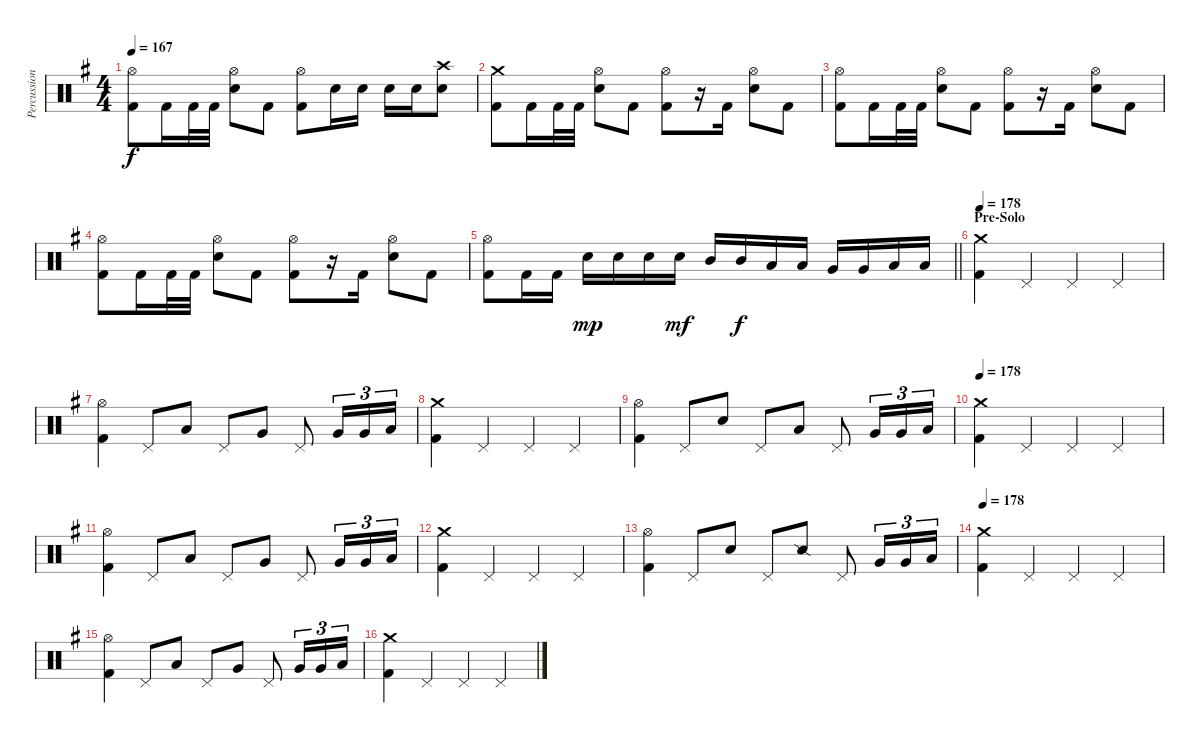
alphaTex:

\track ("Percussion" "Percussion") {instrument percussion}
\staff {score}
\articulation defaults
\ts (4 4)
\tempo 167
\clef neutral
\ks g
("Hi-Hat (open)" "Kick (hit) 2").8{dy f} "Kick (hit) 2".16 "Kick (hit) 2".32 "Kick (hit) 2".32 ("Hi-Hat (open)" "Snare (hit) 2").8 "Kick (hit) 2".8 ("Hi-Hat (open)" "Kick (hit) 2").8 "Snare (hit) 2".16 "Snare (hit) 2".16 "Snare (hit) 2".16 "Snare (hit) 2".16 ("Crash high (hit)" "Snare (hit) 2").8 |
("Crash medium (hit)" "Kick (hit) 2").8 "Kick (hit) 2".16 "Kick (hit) 2".32 "Kick (hit) 2".32 ("Hi-Hat (open)" "Snare (hit) 2").8 "Kick (hit) 2".8 ("Hi-Hat (open)" "Kick (hit) 2").8 r.16 "Kick (hit) 2".16 ("Hi-Hat (open)" "Snare (hit) 2").8 "Kick (hit) 2".8 |
("Hi-Hat (open)" "Kick (hit) 2").8 "Kick (hit) 2".16 "Kick (hit) 2".32 "Kick (hit) 2".32 ("Hi-Hat (open)" "Snare (hit) 2").8 "Kick (hit) 2".8 ("Hi-Hat (open)" "Kick (hit) 2").8 r.16 "Kick (hit) 2".16 ("Hi-Hat (open)" "Snare (hit) 2").8 "Kick (hit) 2".8 |
("Hi-Hat (open)" "Kick (hit) 2").8 "Kick (hit) 2".16 "Kick (hit) 2".32 "Kick (hit) 2".32 ("Hi-Hat (open)" "Snare (hit) 2").8 "Kick (hit) 2".8 ("Hi-Hat (open)" "Kick (hit) 2").8 r.16 "Kick (hit) 2".16 ("Hi-Hat (open)" "Snare (hit) 2").8 "Kick (hit) 2".8 |
\barLineRight lightlight
("Hi-Hat (open)" "Kick (hit) 2").8 "Kick (hit) 2".16 "Kick (hit) 2".16 "Snare (hit) 2".16{dy mp} "Snare (hit) 2".16 "Snare (hit) 2".16 "Snare (hit) 2".16{dy mf} "Mid Tom (hit)".16 "Mid Tom (hit)".16{dy f} "Low Tom (hit)".16 "Low Tom (hit)".16 "Very Low Tom (hit)".16 "Very Low Tom (hit)".16 "Low Floor Tom (hit)".16 "Low Floor Tom (hit)".16 |
\section ("" "Pre-Solo")
\tempo 178
("Crash medium (hit)" "Kick (hit) 2").4 "Pedal Hi-Hat (hit)".4 "Pedal Hi-Hat (hit)".4 "Pedal Hi-Hat (hit)".4 |
("Hi-Hat (open)" "Kick (hit) 2").4 "Pedal Hi-Hat (hit)".8 "Low Tom (hit)".8 "Pedal Hi-Hat (hit)".8 "Very Low Tom (hit)".8 "Pedal Hi-Hat (hit)".8 "Very Low Tom (hit)".16{tu (3 2)} "Very Low Tom (hit)".16{tu (3 2)} "Low Floor Tom (hit)".16{tu (3 2)} |
("Crash medium (hit)" "Kick (hit) 2").4 "Pedal Hi-Hat (hit)".4 "Pedal Hi-Hat (hit)".4 "Pedal Hi-Hat (hit)".4 |
("Hi-Hat (open)" "Kick (hit) 2").4 "Pedal Hi-Hat (hit)".8 "Snare (hit) 2".8 "Pedal Hi-Hat (hit)".8 "Low Tom (hit)".8 "Pedal Hi-Hat (hit)".8 "Very Low Tom (hit)".16{tu (3 2)} "Very Low Tom (hit)".16{tu (3 2)} "Low Floor Tom (hit)".16{tu (3 2)} |
\tempo 178
("Crash medium (hit)" "Kick (hit) 2").4 "Pedal Hi-Hat (hit)".4 "Pedal Hi-Hat (hit)".4 "Pedal Hi-Hat (hit)".4 |
("Hi-Hat (open)" "Kick (hit) 2").4 "Pedal Hi-Hat (hit)".8 "Low Tom (hit)".8 "Pedal Hi-Hat (hit)".8 "Very Low Tom (hit)".8 "Pedal Hi-Hat (hit)".8 "Very Low Tom (hit)".16{tu (3 2)} "Very Low Tom (hit)".16{tu (3 2)} "Low Floor Tom (hit)".16{tu (3 2)} |
("Crash medium (hit)" "Kick (hit) 2").4 "Pedal Hi-Hat (hit)".4 "Pedal Hi-Hat (hit)".4 "Pedal Hi-Hat (hit)".4 |
("Hi-Hat (open)" "Kick (hit) 2").4 "Pedal Hi-Hat (hit)".8 "Snare (hit) 2".8 "Pedal Hi-Hat (hit)".8 "Snare (side stick) 2".8 "Pedal Hi-Hat (hit)".8 "Very Low Tom (hit)".16{tu (3 2)} "Very Low Tom (hit)".16{tu (3 2)} "Low Floor Tom (hit)".16{tu (3 2)} |
\tempo 178
("Crash medium (hit)" "Kick (hit) 2").4 "Pedal Hi-Hat (hit)".4 "Pedal Hi-Hat (hit)".4 "Pedal Hi-Hat (hit)".4 |
("Hi-Hat (open)" "Kick (hit) 2").4 "Pedal Hi-Hat (hit)".8 "Low Tom (hit)".8 "Pedal Hi-Hat (hit)".8 "Very Low Tom (hit)".8 "Pedal Hi-Hat (hit)".8 "Very Low Tom (hit)".16{tu (3 2)} "Very Low Tom (hit)".16{tu (3 2)} "Low Floor Tom (hit)".16{tu (3 2)} |
("Crash medium (hit)" "Kick (hit) 2").4 "Pedal Hi-Hat (hit)".4 "Pedal Hi-Hat (hit)".4 "Pedal Hi-Hat (hit)".4
